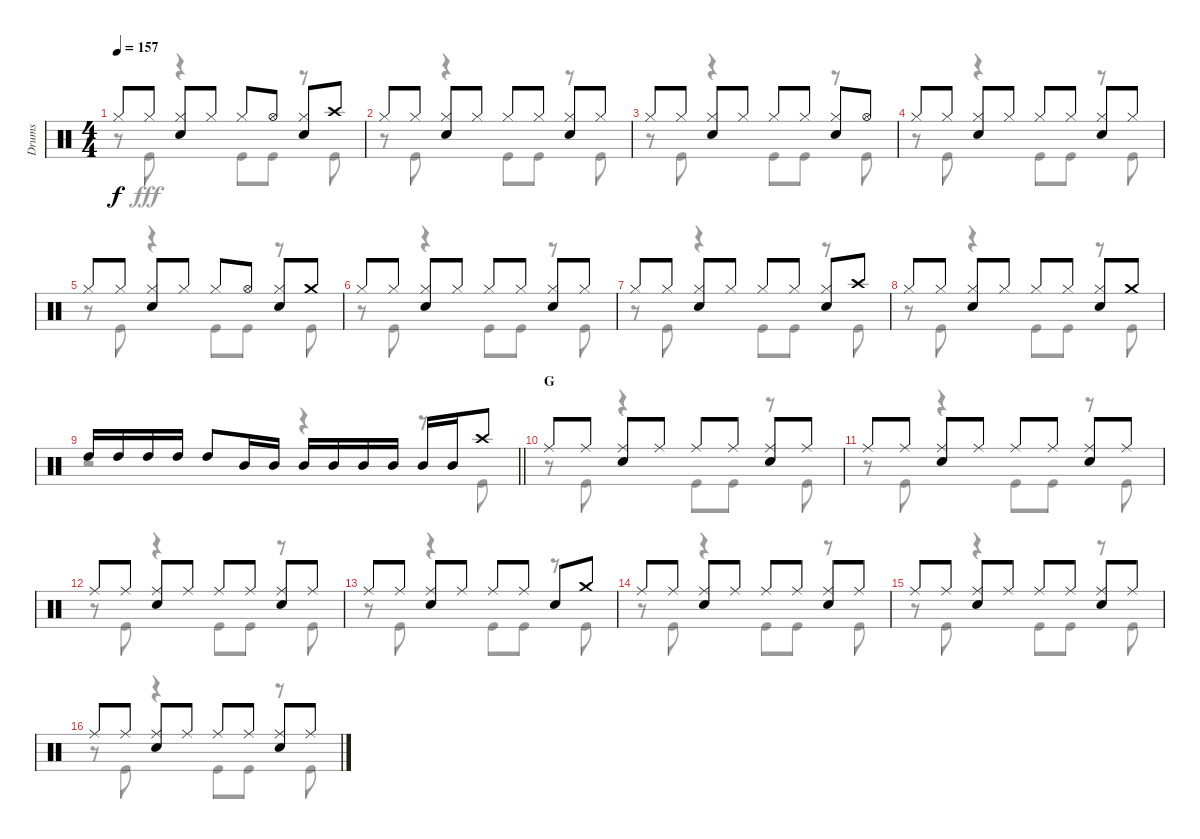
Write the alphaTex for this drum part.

\track ("Drums" "Drums") {instrument percussion}
\staff {score}
\articulation defaults
\voice
\ts (4 4)
\tempo 157
\clef neutral
\ks c "Hi-Hat (closed)".8{dy f} "Hi-Hat (closed)".8
("Hi-Hat (closed)" "Snare (hit) 2").8 "Hi-Hat (closed)".8 "Hi-Hat (closed)".8 "Hi-Hat (open)".8 ("Hi-Hat (closed)" "Snare (hit) 2").8 "Crash high (hit)".8 |
"Hi-Hat (closed)".8 "Hi-Hat (closed)".8 ("Hi-Hat (closed)" "Snare (hit) 2").8 "Hi-Hat (closed)".8 "Hi-Hat (closed)".8 "Hi-Hat (closed)".8 ("Hi-Hat (closed)" "Snare (hit) 2").8 "Hi-Hat (closed)".8 |
"Hi-Hat (closed)".8 "Hi-Hat (closed)".8 ("Hi-Hat (closed)" "Snare (hit) 2").8 "Hi-Hat (closed)".8 "Hi-Hat (closed)".8 "Hi-Hat (closed)".8 ("Hi-Hat (closed)" "Snare (hit) 2").8 "Hi-Hat (open)".8 |
"Hi-Hat (closed)".8 "Hi-Hat (closed)".8 ("Hi-Hat (closed)" "Snare (hit) 2").8 "Hi-Hat (closed)".8 "Hi-Hat (closed)".8 "Hi-Hat (closed)".8 ("Hi-Hat (closed)" "Snare (hit) 2").8 "Hi-Hat (closed)".8 |
"Hi-Hat (closed)".8 "Hi-Hat (closed)".8 ("Hi-Hat (closed)" "Snare (hit) 2").8 "Hi-Hat (closed)".8 "Hi-Hat (closed)".8 "Hi-Hat (open)".8 ("Hi-Hat (closed)" "Snare (hit) 2").8 "Crash medium (hit)".8 |
"Hi-Hat (closed)".8 "Hi-Hat (closed)".8 ("Hi-Hat (closed)" "Snare (hit) 2").8 "Hi-Hat (closed)".8 "Hi-Hat (closed)".8 "Hi-Hat (closed)".8 ("Hi-Hat (closed)" "Snare (hit) 2").8 "Hi-Hat (closed)".8 |
"Hi-Hat (closed)".8 "Hi-Hat (closed)".8 ("Hi-Hat (closed)" "Snare (hit) 2").8 "Hi-Hat (closed)".8 "Hi-Hat (closed)".8 "Hi-Hat (closed)".8 ("Hi-Hat (closed)" "Snare (hit) 2").8 "Crash high (hit)".8 |
"Hi-Hat (closed)".8 "Hi-Hat (closed)".8 ("Hi-Hat (closed)" "Snare (hit) 2").8 "Hi-Hat (closed)".8 "Hi-Hat (closed)".8 "Hi-Hat (closed)".8 ("Hi-Hat (closed)" "Snare (hit) 2").8 "Crash medium (hit)".8 |
\barLineRight lightlight "High Tom (hit)".16 "High Tom (hit)".16 "High Tom (hit)".16 "High Tom (hit)".16 "High Tom (hit)".8 "Mid Tom (hit)".16 "Mid Tom (hit)".16 "Mid Tom (hit)".16 "Mid Tom (hit)".16 "Mid Tom (hit)".16 "Mid Tom (hit)".16 "Mid Tom (hit)".16 "Mid Tom (hit)".16 "Crash high (hit)".8
|
\section ("" "G")
"Ride (middle)".8 "Ride (middle)".8 ("Ride (middle)" "Snare (hit) 2").8 "Ride (middle)".8 "Ride (middle)".8 "Ride (middle)".8 ("Ride (middle)" "Snare (hit) 2").8 "Ride (middle)".8 |
"Ride (middle)".8 "Ride (middle)".8 ("Ride (middle)" "Snare (hit) 2").8 "Ride (middle)".8 "Ride (middle)".8 "Ride (middle)".8 ("Ride (middle)" "Snare (hit) 2").8 "Ride (middle)".8 |
"Ride (middle)".8 "Ride (middle)".8 ("Ride (middle)" "Snare (hit) 2").8 "Ride (middle)".8 "Ride (middle)".8 "Ride (middle)".8 ("Ride (middle)" "Snare (hit) 2").8 "Ride (middle)".8 |
"Ride (middle)".8 "Ride (middle)".8 ("Ride (middle)" "Snare (hit) 2").8 "Ride (middle)".8 "Ride (middle)".8 "Ride (middle)".8 "Snare (hit) 2".8 "Crash medium (hit)".8 |
"Ride (middle)".8 "Ride (middle)".8 ("Ride (middle)" "Snare (hit) 2").8 "Ride (middle)".8 "Ride (middle)".8 "Ride (middle)".8 ("Ride (middle)" "Snare (hit) 2").8 "Ride (middle)".8 |
"Ride (middle)".8 "Ride (middle)".8 ("Ride (middle)" "Snare (hit) 2").8 "Ride (middle)".8 "Ride (middle)".8 "Ride (middle)".8 ("Ride (middle)" "Snare (hit) 2").8 "Ride (middle)".8 |
"Ride (middle)".8 "Ride (middle)".8 ("Ride (middle)" "Snare (hit) 2").8 "Ride (middle)".8 "Ride (middle)".8 "Ride (middle)".8 ("Ride (middle)" "Snare (hit) 2").8 "Ride (middle)".8
\voice
\clef neutral
\ottava regular
\simile none
\ks c
r.8{dy fff} "Kick (hit)".8 r.4 "Kick (hit)".8 "Kick (hit)".8 r.8 "Kick (hit)".8 |
r.8 "Kick (hit)".8 r.4 "Kick (hit)".8 "Kick (hit)".8 r.8 "Kick (hit)".8 |
r.8 "Kick (hit)".8 r.4 "Kick (hit)".8 "Kick (hit)".8 r.8 "Kick (hit)".8 |
r.8 "Kick (hit)".8 r.4 "Kick (hit)".8 "Kick (hit)".8 r.8 "Kick (hit)".8 |
r.8 "Kick (hit)".8 r.4 "Kick (hit)".8 "Kick (hit)".8 r.8 "Kick (hit)".8 |
r.8 "Kick (hit)".8 r.4 "Kick (hit)".8 "Kick (hit)".8 r.8 "Kick (hit)".8 |
r.8 "Kick (hit)".8 r.4 "Kick (hit)".8 "Kick (hit)".8 r.8 "Kick (hit)".8 |
r.8 "Kick (hit)".8 r.4 "Kick (hit)".8 "Kick (hit)".8 r.8 "Kick (hit)".8 |
\barLineRight lightlight
r.2 r.4 r.8 "Kick (hit)".8 |
r.8 "Kick (hit)".8 r.4 "Kick (hit)".8 "Kick (hit)".8 r.8 "Kick (hit)".8 |
r.8 "Kick (hit)".8 r.4 "Kick (hit)".8 "Kick (hit)".8 r.8 "Kick (hit)".8 |
r.8 "Kick (hit)".8 r.4 "Kick (hit)".8 "Kick (hit)".8 r.8 "Kick (hit)".8 |
r.8 "Kick (hit)".8 r.4 "Kick (hit)".8 "Kick (hit)".8 r.8 "Kick (hit)".8 |
r.8 "Kick (hit)".8 r.4 "Kick (hit)".8 "Kick (hit)".8 r.8 "Kick (hit)".8 |
r.8 "Kick (hit)".8 r.4 "Kick (hit)".8 "Kick (hit)".8 r.8 "Kick (hit)".8 |
r.8 "Kick (hit)".8 r.4 "Kick (hit)".8 "Kick (hit)".8 r.8 "Kick (hit)".8
